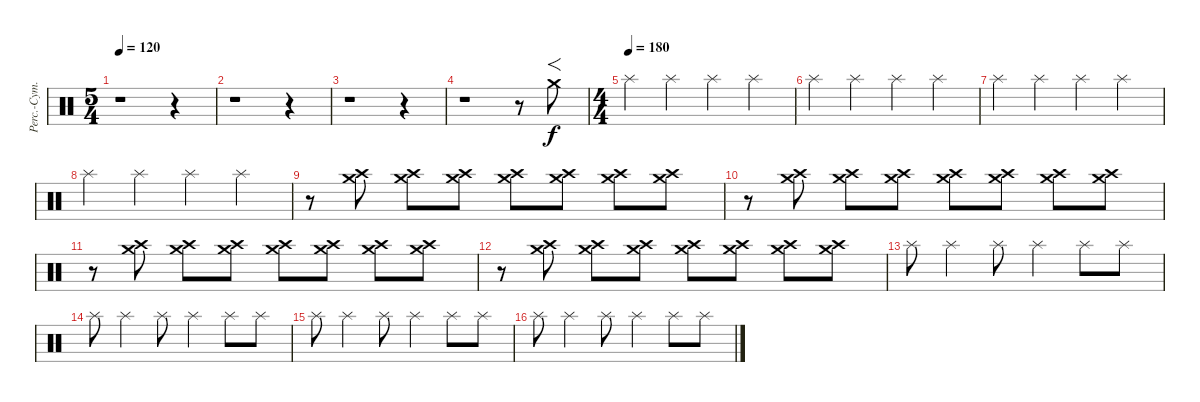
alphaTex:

\track ("Perc.-Cym. 2" "Perc.-Cym.") {instrument percussion}
\staff {score}
\articulation defaults
\ts (5 4)
\tempo 120
\clef neutral
\ks c
r.1{dy f} r.4 |
r.1 r.4 |
r.1 r.4 |
r.1 r.8 "Crash medium (hit)".8{f} |
\ts (4 4)
\tempo (180)
"Splash (hit)".4 "Splash (hit)".4 "Splash (hit)".4 "Splash (hit)".4 |
"Splash (hit)".4 "Splash (hit)".4 "Splash (hit)".4 "Splash (hit)".4 |
"Splash (hit)".4 "Splash (hit)".4 "Splash (hit)".4 "Splash (hit)".4 |
"Splash (hit)".4 "Splash (hit)".4 "Splash (hit)".4 "Splash (hit)".4 |
r.8 ("Crash high (hit)" "Crash medium (hit)").8 ("Crash high (hit)" "Crash medium (hit)").8 ("Crash high (hit)" "Crash medium (hit)").8 ("Crash high (hit)" "Crash medium (hit)").8 ("Crash high (hit)" "Crash medium (hit)").8 ("Crash high (hit)" "Crash medium (hit)").8 ("Crash high (hit)" "Crash medium (hit)").8 |
r.8 ("Crash high (hit)" "Crash medium (hit)").8 ("Crash high (hit)" "Crash medium (hit)").8 ("Crash high (hit)" "Crash medium (hit)").8 ("Crash high (hit)" "Crash medium (hit)").8 ("Crash high (hit)" "Crash medium (hit)").8 ("Crash high (hit)" "Crash medium (hit)").8 ("Crash high (hit)" "Crash medium (hit)").8 |
r.8 ("Crash high (hit)" "Crash medium (hit)").8 ("Crash high (hit)" "Crash medium (hit)").8 ("Crash high (hit)" "Crash medium (hit)").8 ("Crash high (hit)" "Crash medium (hit)").8 ("Crash high (hit)" "Crash medium (hit)").8 ("Crash high (hit)" "Crash medium (hit)").8 ("Crash high (hit)" "Crash medium (hit)").8 |
r.8 ("Crash high (hit)" "Crash medium (hit)").8 ("Crash high (hit)" "Crash medium (hit)").8 ("Crash high (hit)" "Crash medium (hit)").8 ("Crash high (hit)" "Crash medium (hit)").8 ("Crash high (hit)" "Crash medium (hit)").8 ("Crash high (hit)" "Crash medium (hit)").8 ("Crash high (hit)" "Crash medium (hit)").8 |
"Splash (hit)".8 "Splash (hit)".4 "Splash (hit)".8 "Splash (hit)".4 "Splash (hit)".8 "Splash (hit)".8 |
"Splash (hit)".8 "Splash (hit)".4 "Splash (hit)".8 "Splash (hit)".4 "Splash (hit)".8 "Splash (hit)".8 |
"Splash (hit)".8 "Splash (hit)".4 "Splash (hit)".8 "Splash (hit)".4 "Splash (hit)".8 "Splash (hit)".8 |
"Splash (hit)".8 "Splash (hit)".4 "Splash (hit)".8 "Splash (hit)".4 "Splash (hit)".8 "Splash (hit)".8
